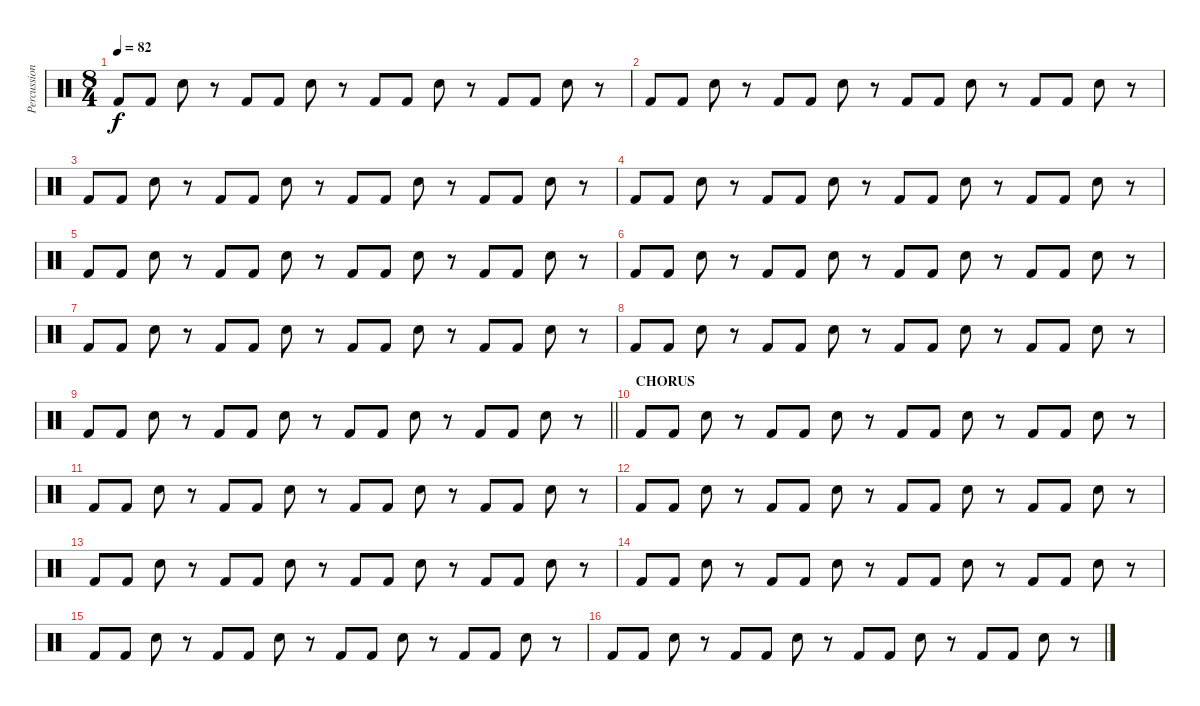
\track ("Percussion" "Percussion") {instrument percussion}
\staff {score}
\articulation defaults
\ts (8 4)
\tempo 82
\clef neutral
\ks c "Kick (hit) 2".8{dy f} "Kick (hit) 2".8 "Electric Snare (hit)".8
r.8 "Kick (hit) 2".8 "Kick (hit) 2".8 "Electric Snare (hit)".8 r.8 "Kick (hit) 2".8 "Kick (hit) 2".8 "Electric Snare (hit)".8 r.8 "Kick (hit) 2".8 "Kick (hit) 2".8 "Electric Snare (hit)".8 r.8 |
"Kick (hit) 2".8 "Kick (hit) 2".8 "Electric Snare (hit)".8 r.8 "Kick (hit) 2".8 "Kick (hit) 2".8 "Electric Snare (hit)".8 r.8 "Kick (hit) 2".8 "Kick (hit) 2".8 "Electric Snare (hit)".8 r.8 "Kick (hit) 2".8 "Kick (hit) 2".8 "Electric Snare (hit)".8 r.8 |
"Kick (hit) 2".8 "Kick (hit) 2".8 "Electric Snare (hit)".8 r.8 "Kick (hit) 2".8 "Kick (hit) 2".8 "Electric Snare (hit)".8 r.8 "Kick (hit) 2".8 "Kick (hit) 2".8 "Electric Snare (hit)".8 r.8 "Kick (hit) 2".8 "Kick (hit) 2".8 "Electric Snare (hit)".8 r.8 |
"Kick (hit) 2".8 "Kick (hit) 2".8 "Electric Snare (hit)".8 r.8 "Kick (hit) 2".8 "Kick (hit) 2".8 "Electric Snare (hit)".8 r.8 "Kick (hit) 2".8 "Kick (hit) 2".8 "Electric Snare (hit)".8 r.8 "Kick (hit) 2".8 "Kick (hit) 2".8 "Electric Snare (hit)".8 r.8 |
"Kick (hit) 2".8 "Kick (hit) 2".8 "Electric Snare (hit)".8 r.8 "Kick (hit) 2".8 "Kick (hit) 2".8 "Electric Snare (hit)".8 r.8 "Kick (hit) 2".8 "Kick (hit) 2".8 "Electric Snare (hit)".8 r.8 "Kick (hit) 2".8 "Kick (hit) 2".8 "Electric Snare (hit)".8 r.8 |
"Kick (hit) 2".8 "Kick (hit) 2".8 "Electric Snare (hit)".8 r.8 "Kick (hit) 2".8 "Kick (hit) 2".8 "Electric Snare (hit)".8 r.8 "Kick (hit) 2".8 "Kick (hit) 2".8 "Electric Snare (hit)".8 r.8 "Kick (hit) 2".8 "Kick (hit) 2".8 "Electric Snare (hit)".8 r.8 |
"Kick (hit) 2".8 "Kick (hit) 2".8 "Electric Snare (hit)".8 r.8 "Kick (hit) 2".8 "Kick (hit) 2".8 "Electric Snare (hit)".8 r.8 "Kick (hit) 2".8 "Kick (hit) 2".8 "Electric Snare (hit)".8 r.8 "Kick (hit) 2".8 "Kick (hit) 2".8 "Electric Snare (hit)".8 r.8 |
"Kick (hit) 2".8 "Kick (hit) 2".8 "Electric Snare (hit)".8 r.8 "Kick (hit) 2".8 "Kick (hit) 2".8 "Electric Snare (hit)".8 r.8 "Kick (hit) 2".8 "Kick (hit) 2".8 "Electric Snare (hit)".8 r.8 "Kick (hit) 2".8 "Kick (hit) 2".8 "Electric Snare (hit)".8 r.8 |
\barLineRight lightlight "Kick (hit) 2".8 "Kick (hit) 2".8 "Electric Snare (hit)".8
r.8 "Kick (hit) 2".8 "Kick (hit) 2".8 "Electric Snare (hit)".8 r.8 "Kick (hit) 2".8 "Kick (hit) 2".8 "Electric Snare (hit)".8 r.8 "Kick (hit) 2".8 "Kick (hit) 2".8 "Electric Snare (hit)".8 r.8 |
\section ("" "CHORUS")
"Kick (hit) 2".8 "Kick (hit) 2".8 "Electric Snare (hit)".8 r.8 "Kick (hit) 2".8 "Kick (hit) 2".8 "Electric Snare (hit)".8 r.8 "Kick (hit) 2".8 "Kick (hit) 2".8 "Electric Snare (hit)".8 r.8 "Kick (hit) 2".8 "Kick (hit) 2".8 "Electric Snare (hit)".8 r.8 |
"Kick (hit) 2".8 "Kick (hit) 2".8 "Electric Snare (hit)".8 r.8 "Kick (hit) 2".8 "Kick (hit) 2".8 "Electric Snare (hit)".8 r.8 "Kick (hit) 2".8 "Kick (hit) 2".8 "Electric Snare (hit)".8 r.8 "Kick (hit) 2".8 "Kick (hit) 2".8 "Electric Snare (hit)".8 r.8 |
"Kick (hit) 2".8 "Kick (hit) 2".8 "Electric Snare (hit)".8 r.8 "Kick (hit) 2".8 "Kick (hit) 2".8 "Electric Snare (hit)".8 r.8 "Kick (hit) 2".8 "Kick (hit) 2".8 "Electric Snare (hit)".8 r.8 "Kick (hit) 2".8 "Kick (hit) 2".8 "Electric Snare (hit)".8 r.8 |
"Kick (hit) 2".8 "Kick (hit) 2".8 "Electric Snare (hit)".8 r.8 "Kick (hit) 2".8 "Kick (hit) 2".8 "Electric Snare (hit)".8 r.8 "Kick (hit) 2".8 "Kick (hit) 2".8 "Electric Snare (hit)".8 r.8 "Kick (hit) 2".8 "Kick (hit) 2".8 "Electric Snare (hit)".8 r.8 |
"Kick (hit) 2".8 "Kick (hit) 2".8 "Electric Snare (hit)".8 r.8 "Kick (hit) 2".8 "Kick (hit) 2".8 "Electric Snare (hit)".8 r.8 "Kick (hit) 2".8 "Kick (hit) 2".8 "Electric Snare (hit)".8 r.8 "Kick (hit) 2".8 "Kick (hit) 2".8 "Electric Snare (hit)".8 r.8 |
"Kick (hit) 2".8 "Kick (hit) 2".8 "Electric Snare (hit)".8 r.8 "Kick (hit) 2".8 "Kick (hit) 2".8 "Electric Snare (hit)".8 r.8 "Kick (hit) 2".8 "Kick (hit) 2".8 "Electric Snare (hit)".8 r.8 "Kick (hit) 2".8 "Kick (hit) 2".8 "Electric Snare (hit)".8 r.8 |
"Kick (hit) 2".8 "Kick (hit) 2".8 "Electric Snare (hit)".8 r.8 "Kick (hit) 2".8 "Kick (hit) 2".8 "Electric Snare (hit)".8 r.8 "Kick (hit) 2".8 "Kick (hit) 2".8 "Electric Snare (hit)".8 r.8 "Kick (hit) 2".8 "Kick (hit) 2".8 "Electric Snare (hit)".8 r.8
